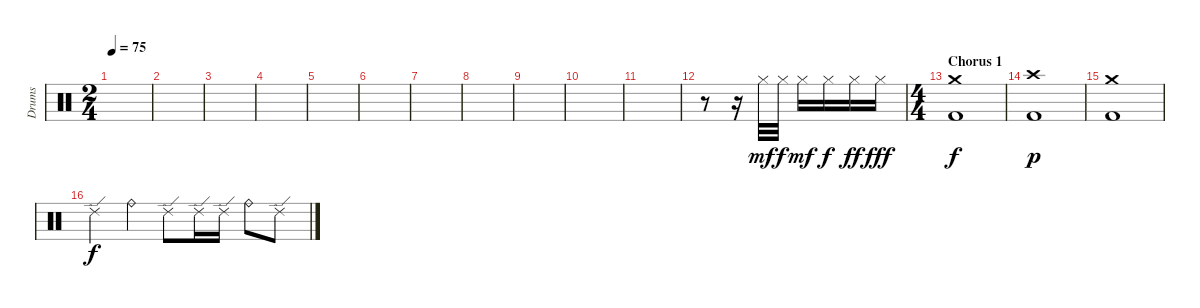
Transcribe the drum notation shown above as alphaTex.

\track ("Drums" "Drums") {instrument percussion}
\staff {score}
\articulation defaults
\ts (2 4)
\tempo 75
\clef neutral
\ks c
|
|
|
|
|
|
|
|
|
|
|
r.8 r.16 "Hi-Hat (closed)".32{dy mf} "Hi-Hat (closed)".32{dy f} "Hi-Hat (closed)".16{dy mf} "Hi-Hat (closed)".16{dy f} "Hi-Hat (closed)".16{dy ff} "Hi-Hat (closed)".16{dy fff} |
\ts (4 4)
\section ("" "Chorus 1")
("Kick (hit) 2" "Crash medium (hit)").1{dy f} |
("Kick (hit) 2" "Crash high (hit)").1{dy p} |
("Kick (hit) 2" "Crash medium (hit)").1 |
"Ride (edge) 2".4{dy f} "Ride (bell)".4 "Ride (edge) 2".8 "Ride (edge) 2".16 "Ride (edge) 2".16 "Ride (bell)".8 "Ride (edge) 2".8
